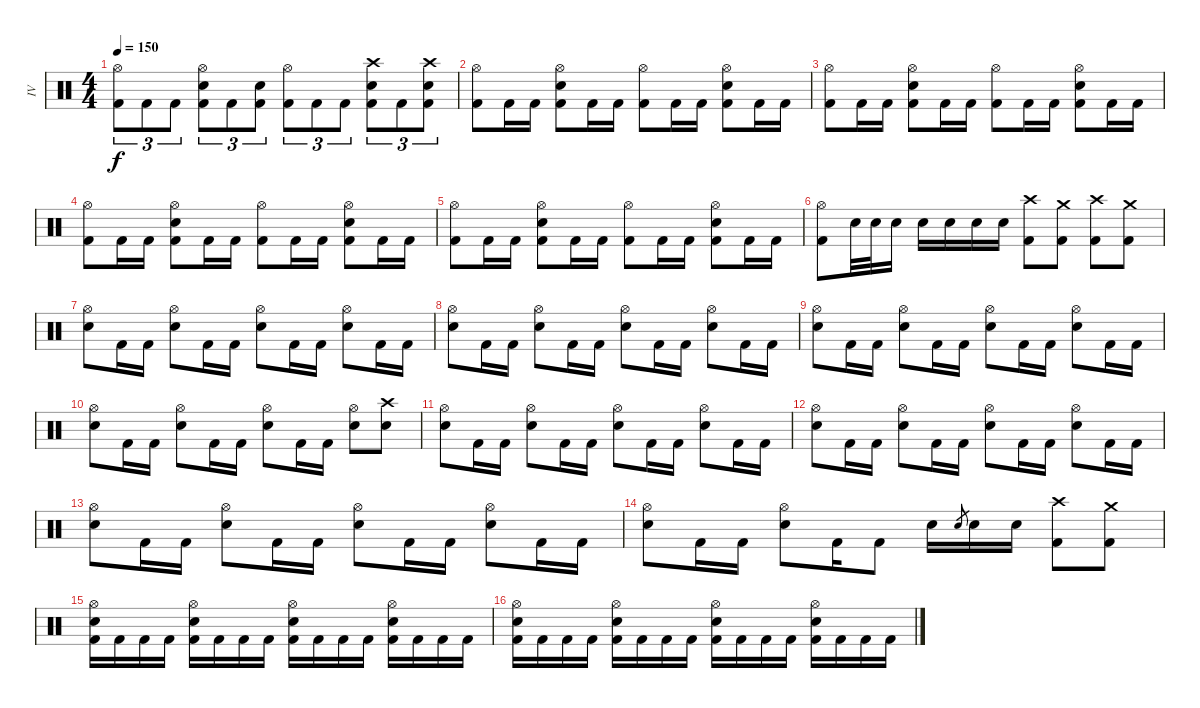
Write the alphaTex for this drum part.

\track ("IV" "IV") {instrument percussion}
\staff {score}
\articulation defaults
\ts (4 4)
\tempo 150
\clef neutral
\ks c
("Hi-Hat (open)" "Kick (hit) 2").8{tu (3 2) dy f} "Kick (hit) 2".8{tu (3 2)} "Kick (hit) 2".8{tu (3 2)} ("Hi-Hat (open)" "Snare (hit) 2" "Kick (hit) 2").8{tu (3 2)} "Kick (hit) 2".8{tu (3 2)} ("Snare (hit) 2" "Kick (hit) 2").8{tu (3 2)} ("Hi-Hat (open)" "Kick (hit) 2").8{tu (3 2)} "Kick (hit) 2".8{tu (3 2)} "Kick (hit) 2".8{tu (3 2)} ("Crash high (hit)" "Snare (hit) 2" "Kick (hit) 2").8{tu (3 2)} "Kick (hit) 2".8{tu (3 2)} ("Crash high (hit)" "Snare (hit) 2" "Kick (hit) 2").8{tu (3 2)} |
("Hi-Hat (open)" "Kick (hit) 2").8 "Kick (hit) 2".16 "Kick (hit) 2".16 ("Hi-Hat (open)" "Snare (hit) 2" "Kick (hit) 2").8 "Kick (hit) 2".16 "Kick (hit) 2".16 ("Hi-Hat (open)" "Kick (hit) 2").8 "Kick (hit) 2".16 "Kick (hit) 2".16 ("Hi-Hat (open)" "Snare (hit) 2" "Kick (hit) 2").8 "Kick (hit) 2".16 "Kick (hit) 2".16 |
("Hi-Hat (open)" "Kick (hit) 2").8 "Kick (hit) 2".16 "Kick (hit) 2".16 ("Hi-Hat (open)" "Snare (hit) 2" "Kick (hit) 2").8 "Kick (hit) 2".16 "Kick (hit) 2".16 ("Hi-Hat (open)" "Kick (hit) 2").8 "Kick (hit) 2".16 "Kick (hit) 2".16 ("Hi-Hat (open)" "Snare (hit) 2" "Kick (hit) 2").8 "Kick (hit) 2".16 "Kick (hit) 2".16 |
("Hi-Hat (open)" "Kick (hit) 2").8 "Kick (hit) 2".16 "Kick (hit) 2".16 ("Hi-Hat (open)" "Snare (hit) 2" "Kick (hit) 2").8 "Kick (hit) 2".16 "Kick (hit) 2".16 ("Hi-Hat (open)" "Kick (hit) 2").8 "Kick (hit) 2".16 "Kick (hit) 2".16 ("Hi-Hat (open)" "Snare (hit) 2" "Kick (hit) 2").8 "Kick (hit) 2".16 "Kick (hit) 2".16 |
("Hi-Hat (open)" "Kick (hit) 2").8 "Kick (hit) 2".16 "Kick (hit) 2".16 ("Hi-Hat (open)" "Snare (hit) 2" "Kick (hit) 2").8 "Kick (hit) 2".16 "Kick (hit) 2".16 ("Hi-Hat (open)" "Kick (hit) 2").8 "Kick (hit) 2".16 "Kick (hit) 2".16 ("Hi-Hat (open)" "Snare (hit) 2" "Kick (hit) 2").8 "Kick (hit) 2".16 "Kick (hit) 2".16 |
("Hi-Hat (open)" "Kick (hit) 2").8 "Snare (hit) 2".32 "Snare (hit) 2".32 "Snare (hit) 2".16 "Snare (hit) 2".16 "Snare (hit) 2".16 "Snare (hit) 2".16 "Snare (hit) 2".16 ("Crash high (hit)" "Kick (hit) 2").8 ("Crash medium (hit)" "Kick (hit) 2").8 ("Crash high (hit)" "Kick (hit) 2").8 ("Crash medium (hit)" "Kick (hit) 2").8 |
("Hi-Hat (open)" "Snare (hit) 2").8 "Kick (hit) 2".16 "Kick (hit) 2".16 ("Hi-Hat (open)" "Snare (hit) 2").8 "Kick (hit) 2".16 "Kick (hit) 2".16 ("Hi-Hat (open)" "Snare (hit) 2").8 "Kick (hit) 2".16 "Kick (hit) 2".16 ("Hi-Hat (open)" "Snare (hit) 2").8 "Kick (hit) 2".16 "Kick (hit) 2".16 |
("Hi-Hat (open)" "Snare (hit) 2").8 "Kick (hit) 2".16 "Kick (hit) 2".16 ("Hi-Hat (open)" "Snare (hit) 2").8 "Kick (hit) 2".16 "Kick (hit) 2".16 ("Hi-Hat (open)" "Snare (hit) 2").8 "Kick (hit) 2".16 "Kick (hit) 2".16 ("Hi-Hat (open)" "Snare (hit) 2").8 "Kick (hit) 2".16 "Kick (hit) 2".16 |
("Hi-Hat (open)" "Snare (hit) 2").8 "Kick (hit) 2".16 "Kick (hit) 2".16 ("Hi-Hat (open)" "Snare (hit) 2").8 "Kick (hit) 2".16 "Kick (hit) 2".16 ("Hi-Hat (open)" "Snare (hit) 2").8 "Kick (hit) 2".16 "Kick (hit) 2".16 ("Hi-Hat (open)" "Snare (hit) 2").8 "Kick (hit) 2".16 "Kick (hit) 2".16 |
("Hi-Hat (open)" "Snare (hit) 2").8 "Kick (hit) 2".16 "Kick (hit) 2".16 ("Hi-Hat (open)" "Snare (hit) 2").8 "Kick (hit) 2".16 "Kick (hit) 2".16 ("Hi-Hat (open)" "Snare (hit) 2").8 "Kick (hit) 2".16 "Kick (hit) 2".16 ("Hi-Hat (open)" "Snare (hit) 2").8 ("Crash high (hit)" "Snare (hit) 2").8 |
("Hi-Hat (open)" "Snare (hit) 2").8 "Kick (hit) 2".16 "Kick (hit) 2".16 ("Hi-Hat (open)" "Snare (hit) 2").8 "Kick (hit) 2".16 "Kick (hit) 2".16 ("Hi-Hat (open)" "Snare (hit) 2").8 "Kick (hit) 2".16 "Kick (hit) 2".16 ("Hi-Hat (open)" "Snare (hit) 2").8 "Kick (hit) 2".16 "Kick (hit) 2".16 |
("Hi-Hat (open)" "Snare (hit) 2").8 "Kick (hit) 2".16 "Kick (hit) 2".16 ("Hi-Hat (open)" "Snare (hit) 2").8 "Kick (hit) 2".16 "Kick (hit) 2".16 ("Hi-Hat (open)" "Snare (hit) 2").8 "Kick (hit) 2".16 "Kick (hit) 2".16 ("Hi-Hat (open)" "Snare (hit) 2").8 "Kick (hit) 2".16 "Kick (hit) 2".16 |
("Hi-Hat (open)" "Snare (hit) 2").8 "Kick (hit) 2".16 "Kick (hit) 2".16 ("Hi-Hat (open)" "Snare (hit) 2").8 "Kick (hit) 2".16 "Kick (hit) 2".16 ("Hi-Hat (open)" "Snare (hit) 2").8 "Kick (hit) 2".16 "Kick (hit) 2".16 ("Hi-Hat (open)" "Snare (hit) 2").8 "Kick (hit) 2".16 "Kick (hit) 2".16 |
("Hi-Hat (open)" "Snare (hit) 2").8 "Kick (hit) 2".16 "Kick (hit) 2".16 ("Hi-Hat (open)" "Snare (hit) 2").8 "Kick (hit) 2".16 "Kick (hit) 2".8 "Snare (hit) 2".16 "Snare (hit) 2".8{gr} "Snare (hit) 2".16 "Snare (hit) 2".16 ("Crash high (hit)" "Kick (hit) 2").8 ("Crash medium (hit)" "Kick (hit) 2").8 |
("Hi-Hat (open)" "Snare (hit) 2" "Kick (hit) 2").16 "Kick (hit) 2".16 "Kick (hit) 2".16 "Kick (hit) 2".16 ("Hi-Hat (open)" "Snare (hit) 2" "Kick (hit) 2").16 "Kick (hit) 2".16 "Kick (hit) 2".16 "Kick (hit) 2".16 ("Hi-Hat (open)" "Snare (hit) 2" "Kick (hit) 2").16 "Kick (hit) 2".16 "Kick (hit) 2".16 "Kick (hit) 2".16 ("Hi-Hat (open)" "Snare (hit) 2" "Kick (hit) 2").16 "Kick (hit) 2".16 "Kick (hit) 2".16 "Kick (hit) 2".16 |
("Hi-Hat (open)" "Snare (hit) 2" "Kick (hit) 2").16 "Kick (hit) 2".16 "Kick (hit) 2".16 "Kick (hit) 2".16 ("Hi-Hat (open)" "Snare (hit) 2" "Kick (hit) 2").16 "Kick (hit) 2".16 "Kick (hit) 2".16 "Kick (hit) 2".16 ("Hi-Hat (open)" "Snare (hit) 2" "Kick (hit) 2").16 "Kick (hit) 2".16 "Kick (hit) 2".16 "Kick (hit) 2".16 ("Hi-Hat (open)" "Snare (hit) 2" "Kick (hit) 2").16 "Kick (hit) 2".16 "Kick (hit) 2".16 "Kick (hit) 2".16
